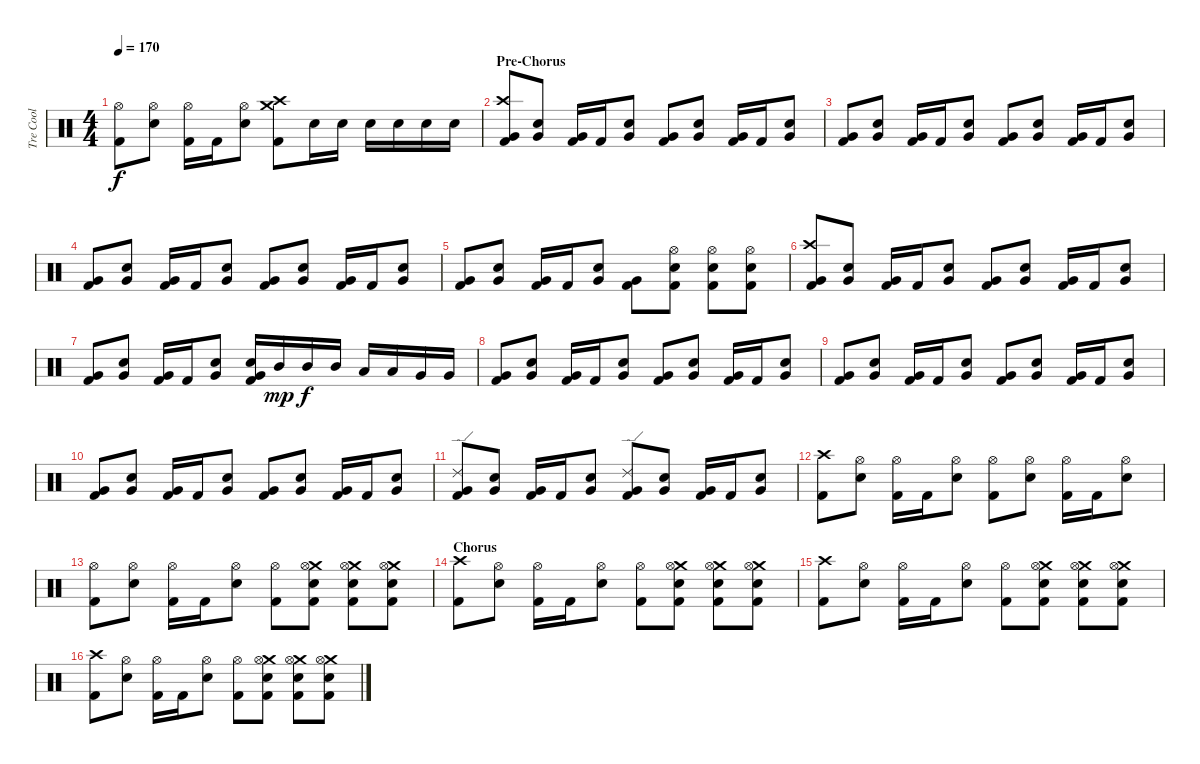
\track ("Tre Cool" "Tre Cool") {instrument percussion}
\staff {score}
\articulation defaults
\ts (4 4)
\tempo 170
\clef neutral
\ks c
("Hi-Hat (open)" "Kick (hit) 2").8{dy f} ("Hi-Hat (open)" "Electric Snare (hit)").8 ("Hi-Hat (open)" "Kick (hit) 2").16 "Kick (hit) 2".16 ("Hi-Hat (open)" "Electric Snare (hit)").8 ("Crash high (hit)" "Crash medium (hit)" "Kick (hit) 2").8 "Electric Snare (hit)".16 "Electric Snare (hit)".16 "Electric Snare (hit)".16 "Electric Snare (hit)".16 "Electric Snare (hit)".16 "Electric Snare (hit)".16 |
\section ("" "Pre-Chorus")
("Crash high (hit)" "Very Low Tom (hit)" "Kick (hit) 2").8 ("Electric Snare (hit)" "Very Low Tom (hit)").8 ("Very Low Tom (hit)" "Kick (hit) 2").16 "Kick (hit) 2".16 ("Electric Snare (hit)" "Very Low Tom (hit)").8 ("Very Low Tom (hit)" "Kick (hit) 2").8 ("Electric Snare (hit)" "Very Low Tom (hit)").8 ("Very Low Tom (hit)" "Kick (hit) 2").16 "Kick (hit) 2".16 ("Electric Snare (hit)" "Very Low Tom (hit)").8 |
("Very Low Tom (hit)" "Kick (hit) 2").8 ("Electric Snare (hit)" "Very Low Tom (hit)").8 ("Very Low Tom (hit)" "Kick (hit) 2").16 "Kick (hit) 2".16 ("Electric Snare (hit)" "Very Low Tom (hit)").8 ("Very Low Tom (hit)" "Kick (hit) 2").8 ("Electric Snare (hit)" "Very Low Tom (hit)").8 ("Very Low Tom (hit)" "Kick (hit) 2").16 "Kick (hit) 2".16 ("Electric Snare (hit)" "Very Low Tom (hit)").8 |
("Very Low Tom (hit)" "Kick (hit) 2").8 ("Electric Snare (hit)" "Very Low Tom (hit)").8 ("Very Low Tom (hit)" "Kick (hit) 2").16 "Kick (hit) 2".16 ("Electric Snare (hit)" "Very Low Tom (hit)").8 ("Very Low Tom (hit)" "Kick (hit) 2").8 ("Electric Snare (hit)" "Very Low Tom (hit)").8 ("Very Low Tom (hit)" "Kick (hit) 2").16 "Kick (hit) 2".16 ("Electric Snare (hit)" "Very Low Tom (hit)").8 |
("Very Low Tom (hit)" "Kick (hit) 2").8 ("Electric Snare (hit)" "Very Low Tom (hit)").8 ("Very Low Tom (hit)" "Kick (hit) 2").16 "Kick (hit) 2".16 ("Electric Snare (hit)" "Very Low Tom (hit)").8 ("Very Low Tom (hit)" "Kick (hit) 2").8 ("Hi-Hat (open)" "Electric Snare (hit)" "Kick (hit) 2").8 ("Hi-Hat (open)" "Electric Snare (hit)" "Kick (hit) 2").8 ("Hi-Hat (open)" "Electric Snare (hit)" "Kick (hit) 2").8 |
("Crash high (hit)" "Very Low Tom (hit)" "Kick (hit) 2").8 ("Electric Snare (hit)" "Very Low Tom (hit)").8 ("Very Low Tom (hit)" "Kick (hit) 2").16 "Kick (hit) 2".16 ("Electric Snare (hit)" "Very Low Tom (hit)").8 ("Very Low Tom (hit)" "Kick (hit) 2").8 ("Electric Snare (hit)" "Very Low Tom (hit)").8 ("Very Low Tom (hit)" "Kick (hit) 2").16 "Kick (hit) 2".16 ("Electric Snare (hit)" "Very Low Tom (hit)").8 |
("Very Low Tom (hit)" "Kick (hit) 2").8 ("Electric Snare (hit)" "Very Low Tom (hit)").8 ("Very Low Tom (hit)" "Kick (hit) 2").16 "Kick (hit) 2".16 ("Electric Snare (hit)" "Very Low Tom (hit)").8 ("Electric Snare (hit)" "Very Low Tom (hit)" "Kick (hit) 2").16 "Mid Tom (hit)".16{dy mp} "Mid Tom (hit)".16{dy f} "Mid Tom (hit)".16 "Low Tom (hit)".16 "Low Tom (hit)".16 "Very Low Tom (hit)".16 "Very Low Tom (hit)".16 |
("Very Low Tom (hit)" "Kick (hit) 2").8 ("Electric Snare (hit)" "Very Low Tom (hit)").8 ("Very Low Tom (hit)" "Kick (hit) 2").16 "Kick (hit) 2".16 ("Electric Snare (hit)" "Very Low Tom (hit)").8 ("Very Low Tom (hit)" "Kick (hit) 2").8 ("Electric Snare (hit)" "Very Low Tom (hit)").8 ("Very Low Tom (hit)" "Kick (hit) 2").16 "Kick (hit) 2".16 ("Electric Snare (hit)" "Very Low Tom (hit)").8 |
("Very Low Tom (hit)" "Kick (hit) 2").8 ("Electric Snare (hit)" "Very Low Tom (hit)").8 ("Very Low Tom (hit)" "Kick (hit) 2").16 "Kick (hit) 2".16 ("Electric Snare (hit)" "Very Low Tom (hit)").8 ("Very Low Tom (hit)" "Kick (hit) 2").8 ("Electric Snare (hit)" "Very Low Tom (hit)").8 ("Very Low Tom (hit)" "Kick (hit) 2").16 "Kick (hit) 2".16 ("Electric Snare (hit)" "Very Low Tom (hit)").8 |
("Very Low Tom (hit)" "Kick (hit) 2").8 ("Electric Snare (hit)" "Very Low Tom (hit)").8 ("Very Low Tom (hit)" "Kick (hit) 2").16 "Kick (hit) 2".16 ("Electric Snare (hit)" "Very Low Tom (hit)").8 ("Very Low Tom (hit)" "Kick (hit) 2").8 ("Electric Snare (hit)" "Very Low Tom (hit)").8 ("Very Low Tom (hit)" "Kick (hit) 2").16 "Kick (hit) 2".16 ("Electric Snare (hit)" "Very Low Tom (hit)").8 |
("Ride (edge) 2" "Very Low Tom (hit)" "Kick (hit) 2").8 ("Electric Snare (hit)" "Very Low Tom (hit)").8 ("Very Low Tom (hit)" "Kick (hit) 2").16 "Kick (hit) 2".16 ("Electric Snare (hit)" "Very Low Tom (hit)").8 ("Ride (edge) 2" "Very Low Tom (hit)" "Kick (hit) 2").8 ("Electric Snare (hit)" "Very Low Tom (hit)").8 ("Very Low Tom (hit)" "Kick (hit) 2").16 "Kick (hit) 2".16 ("Electric Snare (hit)" "Very Low Tom (hit)").8 |
("Crash high (hit)" "Kick (hit) 2").8 ("Hi-Hat (open)" "Electric Snare (hit)").8 ("Hi-Hat (open)" "Kick (hit) 2").16 "Kick (hit) 2".16 ("Hi-Hat (open)" "Electric Snare (hit)").8 ("Hi-Hat (open)" "Kick (hit) 2").8 ("Hi-Hat (open)" "Electric Snare (hit)").8 ("Hi-Hat (open)" "Kick (hit) 2").16 "Kick (hit) 2".16 ("Hi-Hat (open)" "Electric Snare (hit)").8 |
("Hi-Hat (open)" "Kick (hit) 2").8 ("Hi-Hat (open)" "Electric Snare (hit)").8 ("Hi-Hat (open)" "Kick (hit) 2").16 "Kick (hit) 2".16 ("Hi-Hat (open)" "Electric Snare (hit)").8 ("Hi-Hat (open)" "Kick (hit) 2").8 ("Crash medium (hit)" "Hi-Hat (open)" "Electric Snare (hit)" "Kick (hit) 2").8 ("Crash medium (hit)" "Hi-Hat (open)" "Electric Snare (hit)" "Kick (hit) 2").8 ("Crash medium (hit)" "Hi-Hat (open)" "Electric Snare (hit)" "Kick (hit) 2").8 |
\section ("" "Chorus")
("Crash high (hit)" "Kick (hit) 2").8 ("Hi-Hat (open)" "Electric Snare (hit)").8 ("Hi-Hat (open)" "Kick (hit) 2").16 "Kick (hit) 2".16 ("Hi-Hat (open)" "Electric Snare (hit)").8 ("Hi-Hat (open)" "Kick (hit) 2").8 ("Crash medium (hit)" "Hi-Hat (open)" "Electric Snare (hit)" "Kick (hit) 2").8 ("Crash medium (hit)" "Hi-Hat (open)" "Electric Snare (hit)" "Kick (hit) 2").8 ("Crash medium (hit)" "Hi-Hat (open)" "Electric Snare (hit)" "Kick (hit) 2").8 |
("Crash high (hit)" "Kick (hit) 2").8 ("Hi-Hat (open)" "Electric Snare (hit)").8 ("Hi-Hat (open)" "Kick (hit) 2").16 "Kick (hit) 2".16 ("Hi-Hat (open)" "Electric Snare (hit)").8 ("Hi-Hat (open)" "Kick (hit) 2").8 ("Crash medium (hit)" "Hi-Hat (open)" "Electric Snare (hit)" "Kick (hit) 2").8 ("Crash medium (hit)" "Hi-Hat (open)" "Electric Snare (hit)" "Kick (hit) 2").8 ("Crash medium (hit)" "Hi-Hat (open)" "Electric Snare (hit)" "Kick (hit) 2").8 |
("Crash high (hit)" "Kick (hit) 2").8 ("Hi-Hat (open)" "Electric Snare (hit)").8 ("Hi-Hat (open)" "Kick (hit) 2").16 "Kick (hit) 2".16 ("Hi-Hat (open)" "Electric Snare (hit)").8 ("Hi-Hat (open)" "Kick (hit) 2").8 ("Crash medium (hit)" "Hi-Hat (open)" "Electric Snare (hit)" "Kick (hit) 2").8 ("Crash medium (hit)" "Hi-Hat (open)" "Electric Snare (hit)" "Kick (hit) 2").8 ("Crash medium (hit)" "Hi-Hat (open)" "Electric Snare (hit)" "Kick (hit) 2").8
